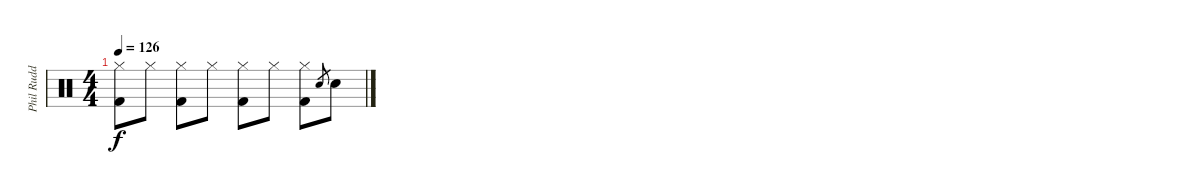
\track ("Phil Rudd (Drums)" "Phil Rudd ") {instrument percussion}
\staff {score}
\articulation defaults
\ts (4 4)
\tempo 126
\clef neutral
\ks c
("Hi-Hat (closed)" "Kick (hit) 2").8{dy f} "Hi-Hat (closed)".8 ("Hi-Hat (closed)" "Kick (hit) 2").8 "Hi-Hat (closed)".8 ("Hi-Hat (closed)" "Kick (hit) 2").8 "Hi-Hat (closed)".8 ("Hi-Hat (closed)" "Kick (hit) 2").8 "Snare (hit) 2".8{gr} "Snare (hit) 2".8
